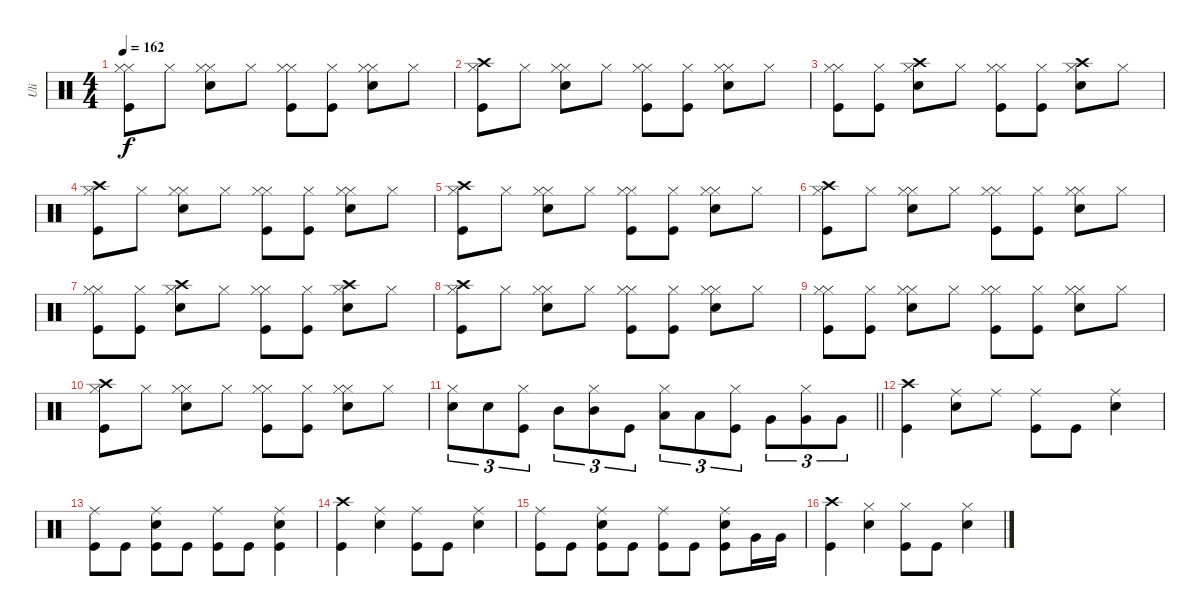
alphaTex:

\track ("Uli" "Uli") {instrument percussion}
\staff {score}
\articulation defaults
\ts (4 4)
\tempo 162
\clef neutral
\ks aminor
("Hi-Hat (closed)" "Hi-Hat (closed)" "Kick (hit)").8{dy f} "Hi-Hat (closed)".8 ("Hi-Hat (closed)" "Hi-Hat (closed)" "Snare (hit) 2").8 "Hi-Hat (closed)".8 ("Hi-Hat (closed)" "Hi-Hat (closed)" "Kick (hit)").8 ("Hi-Hat (closed)" "Kick (hit)").8 ("Hi-Hat (closed)" "Hi-Hat (closed)" "Snare (hit) 2").8 "Hi-Hat (closed)".8 |
("Hi-Hat (closed)" "Crash high (hit)" "Kick (hit)").8 "Hi-Hat (closed)".8 ("Hi-Hat (closed)" "Hi-Hat (closed)" "Snare (hit) 2").8 "Hi-Hat (closed)".8 ("Hi-Hat (closed)" "Hi-Hat (closed)" "Kick (hit)").8 ("Hi-Hat (closed)" "Kick (hit)").8 ("Hi-Hat (closed)" "Hi-Hat (closed)" "Snare (hit) 2").8 "Hi-Hat (closed)".8 |
("Hi-Hat (closed)" "Hi-Hat (closed)" "Kick (hit)").8 ("Hi-Hat (closed)" "Kick (hit)").8 ("Hi-Hat (closed)" "Crash high (hit)" "Snare (hit) 2").8 "Hi-Hat (closed)".8 ("Hi-Hat (closed)" "Hi-Hat (closed)" "Kick (hit)").8 ("Hi-Hat (closed)" "Kick (hit)").8 ("Hi-Hat (closed)" "Crash high (hit)" "Snare (hit) 2").8 "Hi-Hat (closed)".8 |
("Hi-Hat (closed)" "Crash high (hit)" "Kick (hit)").8 "Hi-Hat (closed)".8 ("Hi-Hat (closed)" "Hi-Hat (closed)" "Snare (hit) 2").8 "Hi-Hat (closed)".8 ("Hi-Hat (closed)" "Hi-Hat (closed)" "Kick (hit)").8 ("Hi-Hat (closed)" "Kick (hit)").8 ("Hi-Hat (closed)" "Hi-Hat (closed)" "Snare (hit) 2").8 "Hi-Hat (closed)".8 |
("Hi-Hat (closed)" "Crash high (hit)" "Kick (hit)").8 "Hi-Hat (closed)".8 ("Hi-Hat (closed)" "Hi-Hat (closed)" "Snare (hit) 2").8 "Hi-Hat (closed)".8 ("Hi-Hat (closed)" "Hi-Hat (closed)" "Kick (hit)").8 ("Hi-Hat (closed)" "Kick (hit)").8 ("Hi-Hat (closed)" "Hi-Hat (closed)" "Snare (hit) 2").8 "Hi-Hat (closed)".8 |
("Hi-Hat (closed)" "Crash high (hit)" "Kick (hit)").8 "Hi-Hat (closed)".8 ("Hi-Hat (closed)" "Hi-Hat (closed)" "Snare (hit) 2").8 "Hi-Hat (closed)".8 ("Hi-Hat (closed)" "Hi-Hat (closed)" "Kick (hit)").8 ("Hi-Hat (closed)" "Kick (hit)").8 ("Hi-Hat (closed)" "Hi-Hat (closed)" "Snare (hit) 2").8 "Hi-Hat (closed)".8 |
("Hi-Hat (closed)" "Hi-Hat (closed)" "Kick (hit)").8 ("Hi-Hat (closed)" "Kick (hit)").8 ("Hi-Hat (closed)" "Crash high (hit)" "Snare (hit) 2").8 "Hi-Hat (closed)".8 ("Hi-Hat (closed)" "Hi-Hat (closed)" "Kick (hit)").8 ("Hi-Hat (closed)" "Kick (hit)").8 ("Hi-Hat (closed)" "Crash high (hit)" "Snare (hit) 2").8 "Hi-Hat (closed)".8 |
("Hi-Hat (closed)" "Crash high (hit)" "Kick (hit)").8 "Hi-Hat (closed)".8 ("Hi-Hat (closed)" "Hi-Hat (closed)" "Snare (hit) 2").8 "Hi-Hat (closed)".8 ("Hi-Hat (closed)" "Hi-Hat (closed)" "Kick (hit)").8 ("Hi-Hat (closed)" "Kick (hit)").8 ("Hi-Hat (closed)" "Hi-Hat (closed)" "Snare (hit) 2").8 "Hi-Hat (closed)".8 |
("Hi-Hat (closed)" "Hi-Hat (closed)" "Kick (hit)").8 ("Hi-Hat (closed)" "Kick (hit)").8 ("Hi-Hat (closed)" "Hi-Hat (closed)" "Snare (hit) 2").8 "Hi-Hat (closed)".8 ("Hi-Hat (closed)" "Hi-Hat (closed)" "Kick (hit)").8 ("Hi-Hat (closed)" "Kick (hit)").8 ("Hi-Hat (closed)" "Hi-Hat (closed)" "Snare (hit) 2").8 "Hi-Hat (closed)".8 |
("Hi-Hat (closed)" "Crash high (hit)" "Kick (hit)").8 "Hi-Hat (closed)".8 ("Hi-Hat (closed)" "Hi-Hat (closed)" "Snare (hit) 2").8 "Hi-Hat (closed)".8 ("Hi-Hat (closed)" "Hi-Hat (closed)" "Kick (hit)").8 ("Hi-Hat (closed)" "Kick (hit)").8 ("Hi-Hat (closed)" "Hi-Hat (closed)" "Snare (hit) 2").8 "Hi-Hat (closed)".8 |
\barLineRight lightlight
("Hi-Hat (closed)" "Snare (hit) 2").8{tu (3 2)} "Snare (hit) 2".8{tu (3 2)} ("Hi-Hat (closed)" "Kick (hit)").8{tu (3 2)} "Mid Tom (hit)".8{tu (3 2)} ("Hi-Hat (closed)" "Mid Tom (hit)").8{tu (3 2)} "Kick (hit)".8{tu (3 2)} ("Hi-Hat (closed)" "Low Tom (hit)").8{tu (3 2)} "Low Tom (hit)".8{tu (3 2)} ("Hi-Hat (closed)" "Kick (hit)").8{tu (3 2)} "Very Low Tom (hit)".8{tu (3 2)} ("Hi-Hat (closed)" "Very Low Tom (hit)").8{tu (3 2)} "Very Low Tom (hit)".8{tu (3 2)} |
("Crash high (hit)" "Kick (hit)").4 ("Ride (middle)" "Snare (hit) 2").8 "Ride (middle)".8 ("Ride (middle)" "Kick (hit)").8 "Kick (hit)".8 ("Ride (middle)" "Snare (hit) 2").4 |
("Ride (middle)" "Kick (hit)").8 "Kick (hit)".8 ("Ride (middle)" "Snare (hit) 2" "Kick (hit)").8 "Kick (hit)".8 ("Ride (middle)" "Kick (hit)").8 "Kick (hit)".8 ("Ride (middle)" "Snare (hit) 2" "Kick (hit)").4 |
("Crash high (hit)" "Kick (hit)").4 ("Ride (middle)" "Snare (hit) 2").4 ("Ride (middle)" "Kick (hit)").8 "Kick (hit)".8 ("Ride (middle)" "Snare (hit) 2").4 |
("Ride (middle)" "Kick (hit)").8 "Kick (hit)".8 ("Ride (middle)" "Snare (hit) 2" "Kick (hit)").8 "Kick (hit)".8 ("Ride (middle)" "Kick (hit)").8 "Kick (hit)".8 ("Ride (middle)" "Snare (hit) 2" "Kick (hit)").8 "Very Low Tom (hit)".16 "Very Low Tom (hit)".16 |
("Crash high (hit)" "Kick (hit)").4 ("Hi-Hat (closed)" "Snare (hit) 2").4 ("Hi-Hat (closed)" "Kick (hit)").8 "Kick (hit)".8 ("Hi-Hat (closed)" "Snare (hit) 2").4
